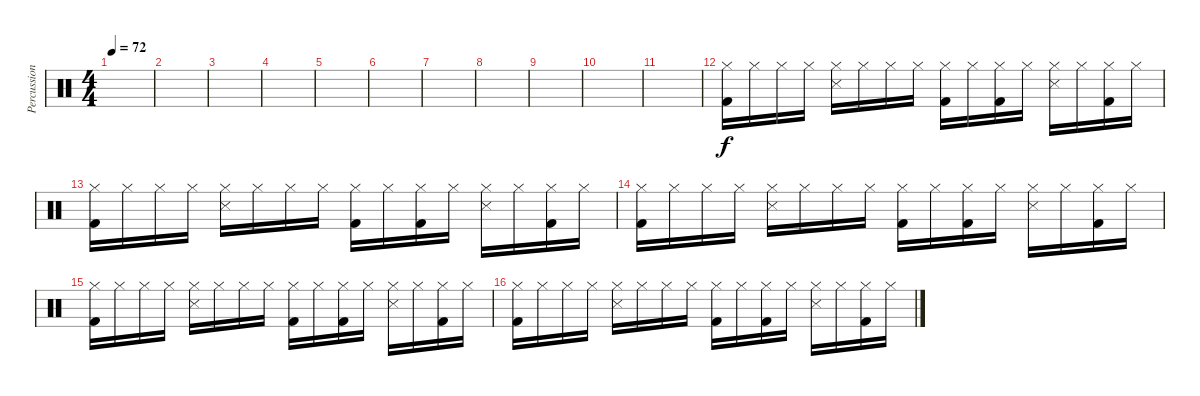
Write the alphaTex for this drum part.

\track ("Percussion" "Percussion") {instrument percussion}
\staff {score}
\articulation defaults
\ts (4 4)
\tempo 72
\clef neutral
\ks c
|
|
|
|
|
|
|
|
|
|
|
("Hi-Hat (closed)" "Kick (hit) 2").16 "Hi-Hat (closed)".16 "Hi-Hat (closed)".16 "Hi-Hat (closed)".16 ("Hi-Hat (closed)" "Snare (side stick) 3").16 "Hi-Hat (closed)".16 "Hi-Hat (closed)".16 "Hi-Hat (closed)".16 ("Hi-Hat (closed)" "Kick (hit) 2").16 "Hi-Hat (closed)".16 ("Hi-Hat (closed)" "Kick (hit) 2").16 "Hi-Hat (closed)".16 ("Hi-Hat (closed)" "Snare (side stick) 3").16 "Hi-Hat (closed)".16 ("Hi-Hat (closed)" "Kick (hit) 2").16 "Hi-Hat (closed)".16 |
("Hi-Hat (closed)" "Kick (hit) 2").16 "Hi-Hat (closed)".16 "Hi-Hat (closed)".16 "Hi-Hat (closed)".16 ("Hi-Hat (closed)" "Snare (side stick) 3").16 "Hi-Hat (closed)".16 "Hi-Hat (closed)".16 "Hi-Hat (closed)".16 ("Hi-Hat (closed)" "Kick (hit) 2").16 "Hi-Hat (closed)".16 ("Hi-Hat (closed)" "Kick (hit) 2").16 "Hi-Hat (closed)".16 ("Hi-Hat (closed)" "Snare (side stick) 3").16 "Hi-Hat (closed)".16 ("Hi-Hat (closed)" "Kick (hit) 2").16 "Hi-Hat (closed)".16 |
("Hi-Hat (closed)" "Kick (hit) 2").16 "Hi-Hat (closed)".16 "Hi-Hat (closed)".16 "Hi-Hat (closed)".16 ("Hi-Hat (closed)" "Snare (side stick) 3").16 "Hi-Hat (closed)".16 "Hi-Hat (closed)".16 "Hi-Hat (closed)".16 ("Hi-Hat (closed)" "Kick (hit) 2").16 "Hi-Hat (closed)".16 ("Hi-Hat (closed)" "Kick (hit) 2").16 "Hi-Hat (closed)".16 ("Hi-Hat (closed)" "Snare (side stick) 3").16 "Hi-Hat (closed)".16 ("Hi-Hat (closed)" "Kick (hit) 2").16 "Hi-Hat (closed)".16 |
("Hi-Hat (closed)" "Kick (hit) 2").16 "Hi-Hat (closed)".16 "Hi-Hat (closed)".16 "Hi-Hat (closed)".16 ("Hi-Hat (closed)" "Snare (side stick) 3").16 "Hi-Hat (closed)".16 "Hi-Hat (closed)".16 "Hi-Hat (closed)".16 ("Hi-Hat (closed)" "Kick (hit) 2").16 "Hi-Hat (closed)".16 ("Hi-Hat (closed)" "Kick (hit) 2").16 "Hi-Hat (closed)".16 ("Hi-Hat (closed)" "Snare (side stick) 3").16 "Hi-Hat (closed)".16 ("Hi-Hat (closed)" "Kick (hit) 2").16 "Hi-Hat (closed)".16 |
("Hi-Hat (closed)" "Kick (hit) 2").16 "Hi-Hat (closed)".16 "Hi-Hat (closed)".16 "Hi-Hat (closed)".16 ("Hi-Hat (closed)" "Snare (side stick) 3").16 "Hi-Hat (closed)".16 "Hi-Hat (closed)".16 "Hi-Hat (closed)".16 ("Hi-Hat (closed)" "Kick (hit) 2").16 "Hi-Hat (closed)".16 ("Hi-Hat (closed)" "Kick (hit) 2").16 "Hi-Hat (closed)".16 ("Hi-Hat (closed)" "Snare (side stick) 3").16 "Hi-Hat (closed)".16 ("Hi-Hat (closed)" "Kick (hit) 2").16 "Hi-Hat (closed)".16
